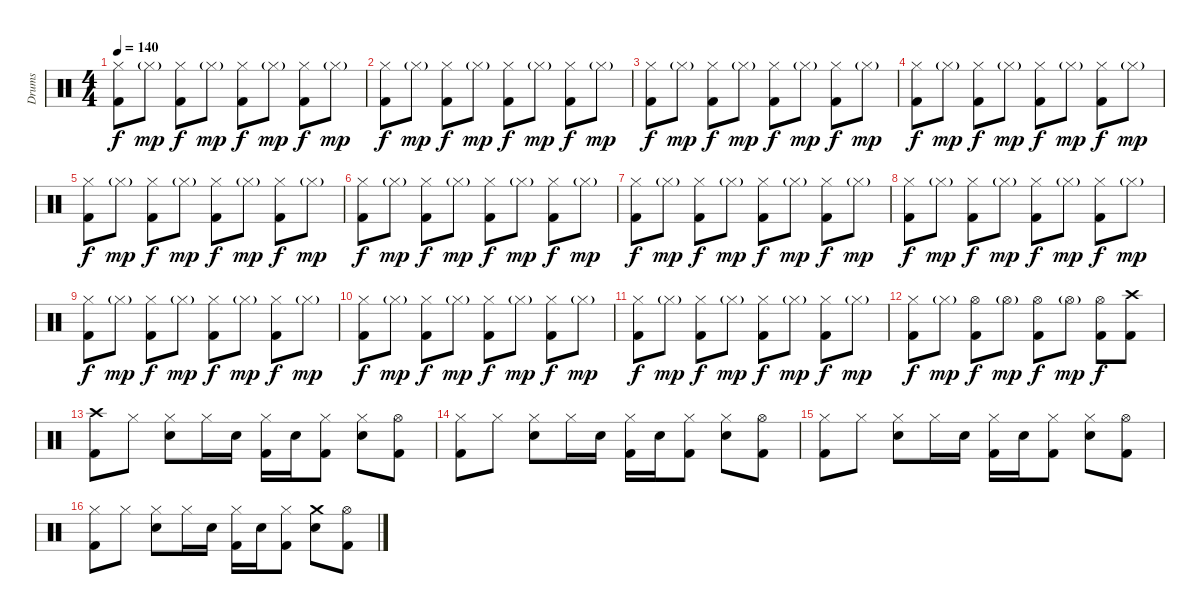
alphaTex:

\track ("Drums" "Drums") {instrument percussion}
\staff {score}
\articulation defaults
\ts (4 4)
\tempo 140
\clef neutral
\ks c
("Hi-Hat (closed)" "Kick (hit) 2").8{dy f} "Hi-Hat (closed)"{g}.8{dy mp} ("Hi-Hat (closed)" "Kick (hit) 2").8{dy f} "Hi-Hat (closed)"{g}.8{dy mp} ("Hi-Hat (closed)" "Kick (hit) 2").8{dy f} "Hi-Hat (closed)"{g}.8{dy mp} ("Hi-Hat (closed)" "Kick (hit) 2").8{dy f} "Hi-Hat (closed)"{g}.8{dy mp} |
("Hi-Hat (closed)" "Kick (hit) 2").8{dy f} "Hi-Hat (closed)"{g}.8{dy mp} ("Hi-Hat (closed)" "Kick (hit) 2").8{dy f} "Hi-Hat (closed)"{g}.8{dy mp} ("Hi-Hat (closed)" "Kick (hit) 2").8{dy f} "Hi-Hat (closed)"{g}.8{dy mp} ("Hi-Hat (closed)" "Kick (hit) 2").8{dy f} "Hi-Hat (closed)"{g}.8{dy mp} |
("Hi-Hat (closed)" "Kick (hit) 2").8{dy f} "Hi-Hat (closed)"{g}.8{dy mp} ("Hi-Hat (closed)" "Kick (hit) 2").8{dy f} "Hi-Hat (closed)"{g}.8{dy mp} ("Hi-Hat (closed)" "Kick (hit) 2").8{dy f} "Hi-Hat (closed)"{g}.8{dy mp} ("Hi-Hat (closed)" "Kick (hit) 2").8{dy f} "Hi-Hat (closed)"{g}.8{dy mp} |
("Hi-Hat (closed)" "Kick (hit) 2").8{dy f} "Hi-Hat (closed)"{g}.8{dy mp} ("Hi-Hat (closed)" "Kick (hit) 2").8{dy f} "Hi-Hat (closed)"{g}.8{dy mp} ("Hi-Hat (closed)" "Kick (hit) 2").8{dy f} "Hi-Hat (closed)"{g}.8{dy mp} ("Hi-Hat (closed)" "Kick (hit) 2").8{dy f} "Hi-Hat (closed)"{g}.8{dy mp} |
("Hi-Hat (closed)" "Kick (hit) 2").8{dy f} "Hi-Hat (closed)"{g}.8{dy mp} ("Hi-Hat (closed)" "Kick (hit) 2").8{dy f} "Hi-Hat (closed)"{g}.8{dy mp} ("Hi-Hat (closed)" "Kick (hit) 2").8{dy f} "Hi-Hat (closed)"{g}.8{dy mp} ("Hi-Hat (closed)" "Kick (hit) 2").8{dy f} "Hi-Hat (closed)"{g}.8{dy mp} |
("Hi-Hat (closed)" "Kick (hit) 2").8{dy f} "Hi-Hat (closed)"{g}.8{dy mp} ("Hi-Hat (closed)" "Kick (hit) 2").8{dy f} "Hi-Hat (closed)"{g}.8{dy mp} ("Hi-Hat (closed)" "Kick (hit) 2").8{dy f} "Hi-Hat (closed)"{g}.8{dy mp} ("Hi-Hat (closed)" "Kick (hit) 2").8{dy f} "Hi-Hat (closed)"{g}.8{dy mp} |
("Hi-Hat (closed)" "Kick (hit) 2").8{dy f} "Hi-Hat (closed)"{g}.8{dy mp} ("Hi-Hat (closed)" "Kick (hit) 2").8{dy f} "Hi-Hat (closed)"{g}.8{dy mp} ("Hi-Hat (closed)" "Kick (hit) 2").8{dy f} "Hi-Hat (closed)"{g}.8{dy mp} ("Hi-Hat (closed)" "Kick (hit) 2").8{dy f} "Hi-Hat (closed)"{g}.8{dy mp} |
("Hi-Hat (closed)" "Kick (hit) 2").8{dy f} "Hi-Hat (closed)"{g}.8{dy mp} ("Hi-Hat (closed)" "Kick (hit) 2").8{dy f} "Hi-Hat (closed)"{g}.8{dy mp} ("Hi-Hat (closed)" "Kick (hit) 2").8{dy f} "Hi-Hat (closed)"{g}.8{dy mp} ("Hi-Hat (closed)" "Kick (hit) 2").8{dy f} "Hi-Hat (closed)"{g}.8{dy mp} |
("Hi-Hat (closed)" "Kick (hit) 2").8{dy f} "Hi-Hat (closed)"{g}.8{dy mp} ("Hi-Hat (closed)" "Kick (hit) 2").8{dy f} "Hi-Hat (closed)"{g}.8{dy mp} ("Hi-Hat (closed)" "Kick (hit) 2").8{dy f} "Hi-Hat (closed)"{g}.8{dy mp} ("Hi-Hat (closed)" "Kick (hit) 2").8{dy f} "Hi-Hat (closed)"{g}.8{dy mp} |
("Hi-Hat (closed)" "Kick (hit) 2").8{dy f} "Hi-Hat (closed)"{g}.8{dy mp} ("Hi-Hat (closed)" "Kick (hit) 2").8{dy f} "Hi-Hat (closed)"{g}.8{dy mp} ("Hi-Hat (closed)" "Kick (hit) 2").8{dy f} "Hi-Hat (closed)"{g}.8{dy mp} ("Hi-Hat (closed)" "Kick (hit) 2").8{dy f} "Hi-Hat (closed)"{g}.8{dy mp} |
("Hi-Hat (closed)" "Kick (hit) 2").8{dy f} "Hi-Hat (closed)"{g}.8{dy mp} ("Hi-Hat (closed)" "Kick (hit) 2").8{dy f} "Hi-Hat (closed)"{g}.8{dy mp} ("Hi-Hat (closed)" "Kick (hit) 2").8{dy f} "Hi-Hat (closed)"{g}.8{dy mp} ("Hi-Hat (closed)" "Kick (hit) 2").8{dy f} "Hi-Hat (closed)"{g}.8{dy mp} |
("Hi-Hat (closed)" "Kick (hit) 2").8{dy f} "Hi-Hat (closed)"{g}.8{dy mp} ("Hi-Hat (open)" "Kick (hit) 2").8{dy f} "Hi-Hat (open)"{g}.8{dy mp} ("Hi-Hat (open)" "Kick (hit) 2").8{dy f} "Hi-Hat (open)"{g}.8{dy mp} ("Hi-Hat (open)" "Kick (hit) 2").8{dy f} ("Crash high (hit)" "Kick (hit) 2").8 |
("Crash high (hit)" "Kick (hit) 2").8 "Hi-Hat (closed)".8 ("Hi-Hat (closed)" "Electric Snare (hit)").8 "Hi-Hat (closed)".16 "Electric Snare (hit)".16 ("Hi-Hat (closed)" "Kick (hit) 2").16 "Electric Snare (hit)".16 ("Hi-Hat (closed)" "Kick (hit) 2").8 ("Hi-Hat (closed)" "Electric Snare (hit)").8 ("Hi-Hat (open)" "Kick (hit) 2").8 |
("Hi-Hat (closed)" "Kick (hit) 2").8 "Hi-Hat (closed)".8 ("Hi-Hat (closed)" "Electric Snare (hit)").8 "Hi-Hat (closed)".16 "Electric Snare (hit)".16 ("Hi-Hat (closed)" "Kick (hit) 2").16 "Electric Snare (hit)".16 ("Hi-Hat (closed)" "Kick (hit) 2").8 ("Hi-Hat (closed)" "Electric Snare (hit)").8 ("Hi-Hat (open)" "Kick (hit) 2").8 |
("Hi-Hat (closed)" "Kick (hit) 2").8 "Hi-Hat (closed)".8 ("Hi-Hat (closed)" "Electric Snare (hit)").8 "Hi-Hat (closed)".16 "Electric Snare (hit)".16 ("Hi-Hat (closed)" "Kick (hit) 2").16 "Electric Snare (hit)".16 ("Hi-Hat (closed)" "Kick (hit) 2").8 ("Hi-Hat (closed)" "Electric Snare (hit)").8 ("Hi-Hat (open)" "Kick (hit) 2").8 |
("Hi-Hat (closed)" "Kick (hit) 2").8 "Hi-Hat (closed)".8 ("Hi-Hat (closed)" "Electric Snare (hit)").8 "Hi-Hat (closed)".16 "Electric Snare (hit)".16 ("Hi-Hat (closed)" "Kick (hit) 2").16 "Electric Snare (hit)".16 ("Hi-Hat (closed)" "Kick (hit) 2").8 ("Crash medium (hit)" "Electric Snare (hit)").8 ("Hi-Hat (open)" "Kick (hit) 2").8
